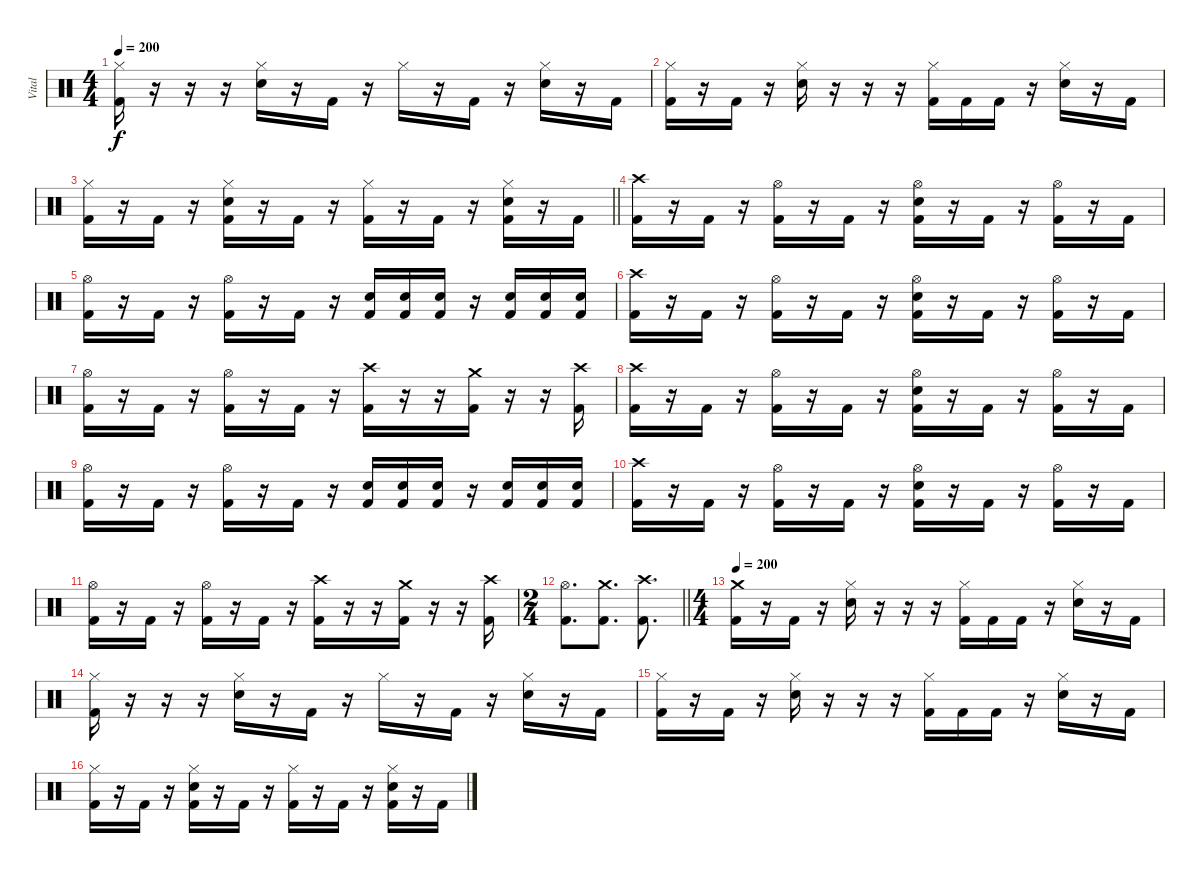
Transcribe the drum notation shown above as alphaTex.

\track ("Vital" "Vital") {instrument percussion}
\staff {score}
\articulation defaults
\ts (4 4)
\tempo 200
\clef neutral
\ks c
("Hi-Hat (closed)" "Kick (hit) 2").16{dy f} r.16 r.16 r.16 ("Hi-Hat (closed)" "Snare (hit) 2").16 r.16 "Kick (hit) 2".16 r.16 "Hi-Hat (closed)".16 r.16 "Kick (hit) 2".16 r.16 ("Hi-Hat (closed)" "Snare (hit) 2").16 r.16 "Kick (hit) 2".16 |
("Hi-Hat (closed)" "Kick (hit) 2").16 r.16 "Kick (hit) 2".16 r.16 ("Hi-Hat (closed)" "Snare (hit) 2").16 r.16 r.16 r.16 ("Hi-Hat (closed)" "Kick (hit) 2").16 "Kick (hit) 2".16 "Kick (hit) 2".16 r.16 ("Hi-Hat (closed)" "Snare (hit) 2").16 r.16 "Kick (hit) 2".16 |
\barLineRight lightlight
("Hi-Hat (closed)" "Kick (hit) 2").16 r.16 "Kick (hit) 2".16 r.16 ("Hi-Hat (closed)" "Snare (hit) 2" "Kick (hit) 2").16 r.16 "Kick (hit) 2".16 r.16 ("Hi-Hat (closed)" "Kick (hit) 2").16 r.16 "Kick (hit) 2".16 r.16 ("Hi-Hat (closed)" "Snare (hit) 2" "Kick (hit) 2").16 r.16 "Kick (hit) 2".16 |
("Crash high (hit)" "Kick (hit) 2").16 r.16 "Kick (hit) 2".16 r.16 ("Hi-Hat (open)" "Kick (hit) 2").16 r.16 "Kick (hit) 2".16 r.16 ("Hi-Hat (open)" "Snare (hit) 2" "Kick (hit) 2").16 r.16 "Kick (hit) 2".16 r.16 ("Hi-Hat (open)" "Kick (hit) 2").16 r.16 "Kick (hit) 2".16 |
("Hi-Hat (open)" "Kick (hit) 2").16 r.16 "Kick (hit) 2".16 r.16 ("Hi-Hat (open)" "Kick (hit) 2").16 r.16 "Kick (hit) 2".16 r.16 ("Snare (hit) 2" "Kick (hit) 2").16 ("Snare (hit) 2" "Kick (hit) 2").16 ("Snare (hit) 2" "Kick (hit) 2").16 r.16 ("Snare (hit) 2" "Kick (hit) 2").16 ("Snare (hit) 2" "Kick (hit) 2").16 ("Snare (hit) 2" "Kick (hit) 2").16 |
("Crash high (hit)" "Kick (hit) 2").16 r.16 "Kick (hit) 2".16 r.16 ("Hi-Hat (open)" "Kick (hit) 2").16 r.16 "Kick (hit) 2".16 r.16 ("Hi-Hat (open)" "Snare (hit) 2" "Kick (hit) 2").16 r.16 "Kick (hit) 2".16 r.16 ("Hi-Hat (open)" "Kick (hit) 2").16 r.16 "Kick (hit) 2".16 |
("Hi-Hat (open)" "Kick (hit) 2").16 r.16 "Kick (hit) 2".16 r.16 ("Hi-Hat (open)" "Kick (hit) 2").16 r.16 "Kick (hit) 2".16 r.16 ("Crash high (hit)" "Kick (hit) 2").16 r.16 r.16 ("Crash medium (hit)" "Kick (hit) 2").16 r.16 r.16 ("Crash high (hit)" "Kick (hit) 2").16 |
("Crash high (hit)" "Kick (hit) 2").16 r.16 "Kick (hit) 2".16 r.16 ("Hi-Hat (open)" "Kick (hit) 2").16 r.16 "Kick (hit) 2".16 r.16 ("Hi-Hat (open)" "Snare (hit) 2" "Kick (hit) 2").16 r.16 "Kick (hit) 2".16 r.16 ("Hi-Hat (open)" "Kick (hit) 2").16 r.16 "Kick (hit) 2".16 |
("Hi-Hat (open)" "Kick (hit) 2").16 r.16 "Kick (hit) 2".16 r.16 ("Hi-Hat (open)" "Kick (hit) 2").16 r.16 "Kick (hit) 2".16 r.16 ("Snare (hit) 2" "Kick (hit) 2").16 ("Snare (hit) 2" "Kick (hit) 2").16 ("Snare (hit) 2" "Kick (hit) 2").16 r.16 ("Snare (hit) 2" "Kick (hit) 2").16 ("Snare (hit) 2" "Kick (hit) 2").16 ("Snare (hit) 2" "Kick (hit) 2").16 |
("Crash high (hit)" "Kick (hit) 2").16 r.16 "Kick (hit) 2".16 r.16 ("Hi-Hat (open)" "Kick (hit) 2").16 r.16 "Kick (hit) 2".16 r.16 ("Hi-Hat (open)" "Snare (hit) 2" "Kick (hit) 2").16 r.16 "Kick (hit) 2".16 r.16 ("Hi-Hat (open)" "Kick (hit) 2").16 r.16 "Kick (hit) 2".16 |
("Hi-Hat (open)" "Kick (hit) 2").16 r.16 "Kick (hit) 2".16 r.16 ("Hi-Hat (open)" "Kick (hit) 2").16 r.16 "Kick (hit) 2".16 r.16 ("Crash high (hit)" "Kick (hit) 2").16 r.16 r.16 ("Crash medium (hit)" "Kick (hit) 2").16 r.16 r.16 ("Crash high (hit)" "Kick (hit) 2").16 |
\ts (2 4)
\barLineRight lightlight
("Hi-Hat (open)" "Kick (hit) 2").8{d} ("Crash medium (hit)" "Kick (hit) 2").8{d} ("Crash high (hit)" "Kick (hit) 2").8{d} |
\ts (4 4)
\tempo 200
("Crash medium (hit)" "Kick (hit) 2").16 r.16 "Kick (hit) 2".16 r.16 ("Hi-Hat (closed)" "Snare (hit) 2").16 r.16 r.16 r.16 ("Hi-Hat (closed)" "Kick (hit) 2").16 "Kick (hit) 2".16 "Kick (hit) 2".16 r.16 ("Hi-Hat (closed)" "Snare (hit) 2").16 r.16 "Kick (hit) 2".16 |
("Hi-Hat (closed)" "Kick (hit) 2").16 r.16 r.16 r.16 ("Hi-Hat (closed)" "Snare (hit) 2").16 r.16 "Kick (hit) 2".16 r.16 "Hi-Hat (closed)".16 r.16 "Kick (hit) 2".16 r.16 ("Hi-Hat (closed)" "Snare (hit) 2").16 r.16 "Kick (hit) 2".16 |
("Hi-Hat (closed)" "Kick (hit) 2").16 r.16 "Kick (hit) 2".16 r.16 ("Hi-Hat (closed)" "Snare (hit) 2").16 r.16 r.16 r.16 ("Hi-Hat (closed)" "Kick (hit) 2").16 "Kick (hit) 2".16 "Kick (hit) 2".16 r.16 ("Hi-Hat (closed)" "Snare (hit) 2").16 r.16 "Kick (hit) 2".16 |
("Hi-Hat (closed)" "Kick (hit) 2").16 r.16 "Kick (hit) 2".16 r.16 ("Hi-Hat (closed)" "Snare (hit) 2" "Kick (hit) 2").16 r.16 "Kick (hit) 2".16 r.16 ("Hi-Hat (closed)" "Kick (hit) 2").16 r.16 "Kick (hit) 2".16 r.16 ("Hi-Hat (closed)" "Snare (hit) 2" "Kick (hit) 2").16 r.16 "Kick (hit) 2".16
